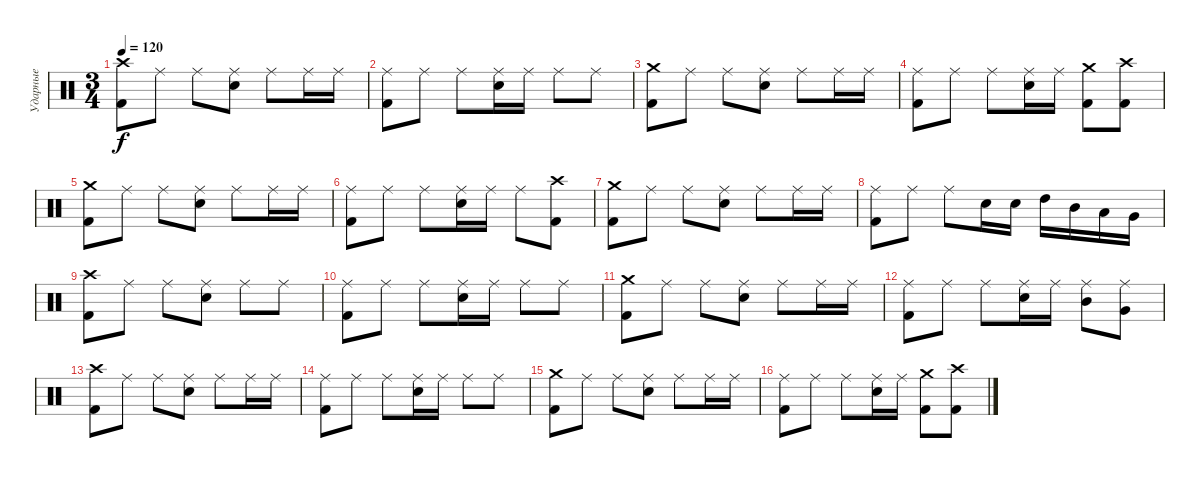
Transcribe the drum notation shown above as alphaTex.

\track ("Ударные" "Ударные") {instrument percussion}
\staff {score}
\articulation defaults
\ts (3 4)
\tempo 120
\clef neutral
\ks c
("Crash high (hit)" "Kick (hit) 2").8{dy f} "Ride (middle)".8 "Ride (middle)".8 ("Ride (middle)" "Electric Snare (hit)").8 "Ride (middle)".8 "Ride (middle)".16 "Ride (middle)".16 |
("Ride (middle)" "Kick (hit) 2").8 "Ride (middle)".8 "Ride (middle)".8 ("Ride (middle)" "Electric Snare (hit)").16 "Ride (middle)".16 "Ride (middle)".8 "Ride (middle)".8 |
("Crash medium (hit)" "Kick (hit) 2").8 "Ride (middle)".8 "Ride (middle)".8 ("Ride (middle)" "Electric Snare (hit)").8 "Ride (middle)".8 "Ride (middle)".16 "Ride (middle)".16 |
("Ride (middle)" "Kick (hit) 2").8 "Ride (middle)".8 "Ride (middle)".8 ("Ride (middle)" "Electric Snare (hit)").16 "Ride (middle)".16 ("Crash medium (hit)" "Kick (hit) 2").8 ("Crash high (hit)" "Kick (hit) 2").8 |
("Crash medium (hit)" "Kick (hit) 2").8 "Ride (middle)".8 "Ride (middle)".8 ("Ride (middle)" "Electric Snare (hit)").8 "Ride (middle)".8 "Ride (middle)".16 "Ride (middle)".16 |
("Ride (middle)" "Kick (hit) 2").8 "Ride (middle)".8 "Ride (middle)".8 ("Ride (middle)" "Electric Snare (hit)").16 "Ride (middle)".16 "Ride (middle)".8 ("Crash high (hit)" "Kick (hit) 2").8 |
("Crash medium (hit)" "Kick (hit) 2").8 "Ride (middle)".8 "Ride (middle)".8 ("Ride (middle)" "Electric Snare (hit)").8 "Ride (middle)".8 "Ride (middle)".16 "Ride (middle)".16 |
("Ride (middle)" "Kick (hit) 2").8 "Ride (middle)".8 "Ride (middle)".8 "Electric Snare (hit)".16 "Electric Snare (hit)".16 "High Tom (hit)".16 "Mid Tom (hit)".16 "Low Tom (hit)".16 "Very Low Tom (hit)".16 |
("Crash high (hit)" "Kick (hit) 2").8 "Ride (middle)".8 "Ride (middle)".8 ("Ride (middle)" "Electric Snare (hit)").8 "Ride (middle)".8 "Ride (middle)".8 |
("Ride (middle)" "Kick (hit) 2").8 "Ride (middle)".8 "Ride (middle)".8 ("Ride (middle)" "Electric Snare (hit)").16 "Ride (middle)".16 "Ride (middle)".8 "Ride (middle)".8 |
("Crash medium (hit)" "Kick (hit) 2").8 "Ride (middle)".8 "Ride (middle)".8 ("Ride (middle)" "Electric Snare (hit)").8 "Ride (middle)".8 "Ride (middle)".16 "Ride (middle)".16 |
("Ride (middle)" "Kick (hit) 2").8 "Ride (middle)".8 "Ride (middle)".8 ("Ride (middle)" "Electric Snare (hit)").16 "Ride (middle)".16 ("Ride (middle)" "Mid Tom (hit)").8 ("Ride (middle)" "Very Low Tom (hit)").8 |
("Crash high (hit)" "Kick (hit) 2").8 "Ride (middle)".8 "Ride (middle)".8 ("Ride (middle)" "Electric Snare (hit)").8 "Ride (middle)".8 "Ride (middle)".16 "Ride (middle)".16 |
("Ride (middle)" "Kick (hit) 2").8 "Ride (middle)".8 "Ride (middle)".8 ("Ride (middle)" "Electric Snare (hit)").16 "Ride (middle)".16 "Ride (middle)".8 "Ride (middle)".8 |
("Crash medium (hit)" "Kick (hit) 2").8 "Ride (middle)".8 "Ride (middle)".8 ("Ride (middle)" "Electric Snare (hit)").8 "Ride (middle)".8 "Ride (middle)".16 "Ride (middle)".16 |
("Ride (middle)" "Kick (hit) 2").8 "Ride (middle)".8 "Ride (middle)".8 ("Ride (middle)" "Electric Snare (hit)").16 "Ride (middle)".16 ("Crash medium (hit)" "Kick (hit) 2").8 ("Crash high (hit)" "Kick (hit) 2").8
